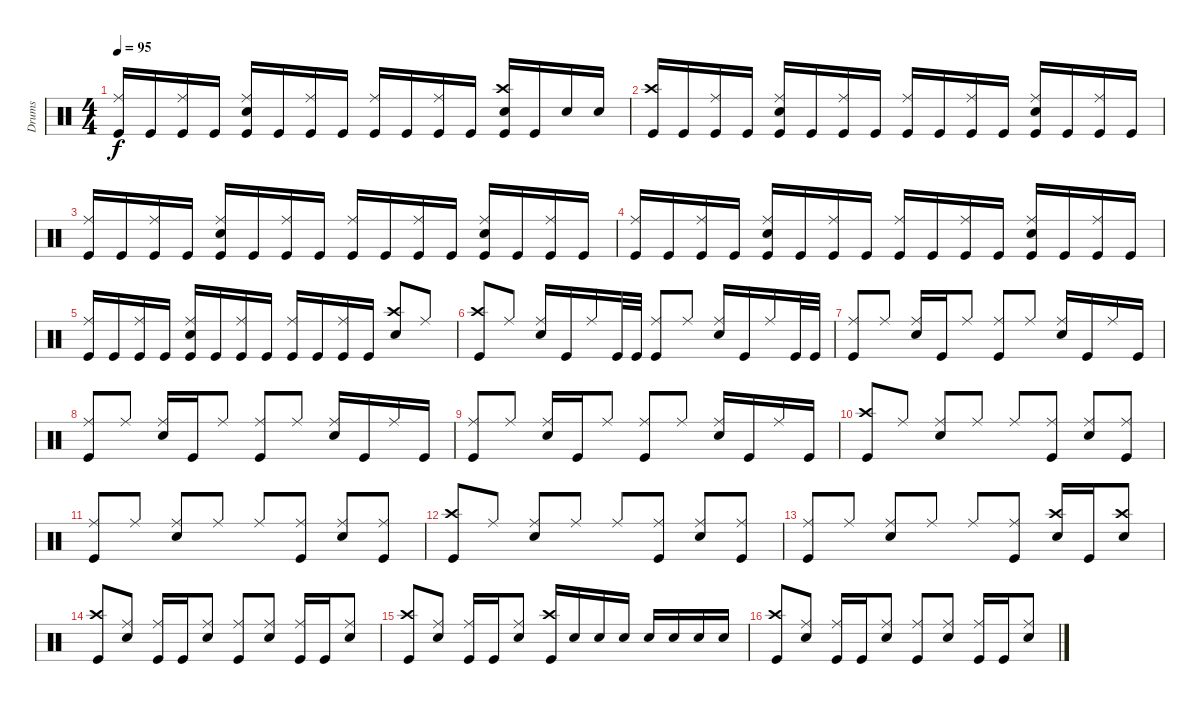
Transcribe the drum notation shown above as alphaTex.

\track ("Drums" "Drums") {instrument percussion}
\staff {score}
\articulation defaults
\ts (4 4)
\tempo 95
\clef neutral
\ks c
("Kick (hit)" "Ride (middle)").16{dy f beam Up} "Kick (hit)".16{beam Up} ("Kick (hit)" "Ride (middle)").16{beam Up} "Kick (hit)".16{beam Up} ("Kick (hit)" "Ride (middle)" "Snare (hit) 2").16{beam Up} "Kick (hit)".16{beam Up} ("Kick (hit)" "Ride (middle)").16{beam Up} "Kick (hit)".16{beam Up} ("Kick (hit)" "Ride (middle)").16{beam Up} "Kick (hit)".16{beam Up} ("Kick (hit)" "Ride (middle)").16{beam Up} "Kick (hit)".16{beam Up} ("Kick (hit)" "Crash high (hit)" "Snare (hit) 2").16{beam Up} "Kick (hit)".16{beam Up} "Snare (hit) 2".16{beam Up} "Snare (hit) 2".16{beam Up} |
("Kick (hit)" "Crash high (hit)").16{beam Up} "Kick (hit)".16{beam Up} ("Kick (hit)" "Ride (middle)").16{beam Up} "Kick (hit)".16{beam Up} ("Kick (hit)" "Ride (middle)" "Snare (hit) 2").16{beam Up} "Kick (hit)".16{beam Up} ("Kick (hit)" "Ride (middle)").16{beam Up} "Kick (hit)".16{beam Up} ("Kick (hit)" "Ride (middle)").16{beam Up} "Kick (hit)".16{beam Up} ("Kick (hit)" "Ride (middle)").16{beam Up} "Kick (hit)".16{beam Up} ("Kick (hit)" "Ride (middle)" "Snare (hit) 2").16{beam Up} "Kick (hit)".16{beam Up} ("Kick (hit)" "Ride (middle)").16{beam Up} "Kick (hit)".16{beam Up} |
("Kick (hit)" "Ride (middle)").16{beam Up} "Kick (hit)".16{beam Up} ("Kick (hit)" "Ride (middle)").16{beam Up} "Kick (hit)".16{beam Up} ("Kick (hit)" "Ride (middle)" "Snare (hit) 2").16{beam Up} "Kick (hit)".16{beam Up} ("Kick (hit)" "Ride (middle)").16{beam Up} "Kick (hit)".16{beam Up} ("Kick (hit)" "Ride (middle)").16{beam Up} "Kick (hit)".16{beam Up} ("Kick (hit)" "Ride (middle)").16{beam Up} "Kick (hit)".16{beam Up} ("Kick (hit)" "Ride (middle)" "Snare (hit) 2").16{beam Up} "Kick (hit)".16{beam Up} ("Kick (hit)" "Ride (middle)").16{beam Up} "Kick (hit)".16{beam Up} |
("Kick (hit)" "Ride (middle)").16{beam Up} "Kick (hit)".16{beam Up} ("Kick (hit)" "Ride (middle)").16{beam Up} "Kick (hit)".16{beam Up} ("Kick (hit)" "Ride (middle)" "Snare (hit) 2").16{beam Up} "Kick (hit)".16{beam Up} ("Kick (hit)" "Ride (middle)").16{beam Up} "Kick (hit)".16{beam Up} ("Kick (hit)" "Ride (middle)").16{beam Up} "Kick (hit)".16{beam Up} ("Kick (hit)" "Ride (middle)").16{beam Up} "Kick (hit)".16{beam Up} ("Kick (hit)" "Ride (middle)" "Snare (hit) 2").16{beam Up} "Kick (hit)".16{beam Up} ("Kick (hit)" "Ride (middle)").16{beam Up} "Kick (hit)".16{beam Up} |
("Kick (hit)" "Ride (middle)").16{beam Up} "Kick (hit)".16{beam Up} ("Kick (hit)" "Ride (middle)").16{beam Up} "Kick (hit)".16{beam Up} ("Kick (hit)" "Ride (middle)" "Snare (hit) 2").16{beam Up} "Kick (hit)".16{beam Up} ("Kick (hit)" "Ride (middle)").16{beam Up} "Kick (hit)".16{beam Up} ("Kick (hit)" "Ride (middle)").16{beam Up} "Kick (hit)".16{beam Up} ("Kick (hit)" "Ride (middle)").16{beam Up} "Kick (hit)".16{beam Up} ("Crash high (hit)" "Snare (hit) 2").8{beam Up} "Ride (middle)".8{beam Up} |
("Kick (hit)" "Crash high (hit)").8{beam Up} "Ride (middle)".8{beam Up} ("Snare (hit) 2" "Ride (middle)").16{beam Up} "Kick (hit)".16{beam Up} "Ride (middle)".16{beam Up} "Kick (hit)".32{beam Up} "Kick (hit)".32{beam Up} ("Kick (hit)" "Ride (middle)").8{beam Up} "Ride (middle)".8{beam Up} ("Snare (hit) 2" "Ride (middle)").16{beam Up} "Kick (hit)".16{beam Up} "Ride (middle)".16{beam Up} "Kick (hit)".32{beam Up} "Kick (hit)".32{beam Up} |
("Kick (hit)" "Ride (middle)").8{beam Up} "Ride (middle)".8{beam Up} ("Snare (hit) 2" "Ride (middle)").16{beam Up} "Kick (hit)".16{beam Up} "Ride (middle)".8{beam Up} ("Ride (middle)" "Kick (hit)").8{beam Up} "Ride (middle)".8{beam Up} ("Snare (hit) 2" "Ride (middle)").16{beam Up} "Kick (hit)".16{beam Up} "Ride (middle)".16{beam Up} "Kick (hit)".16{beam Up} |
("Kick (hit)" "Ride (middle)").8{beam Up} "Ride (middle)".8{beam Up} ("Snare (hit) 2" "Ride (middle)").16{beam Up} "Kick (hit)".16{beam Up} "Ride (middle)".8{beam Up} ("Kick (hit)" "Ride (middle)").8{beam Up} "Ride (middle)".8{beam Up} ("Ride (middle)" "Snare (hit) 2").16{beam Up} "Kick (hit)".16{beam Up} "Ride (middle)".16{beam Up} "Kick (hit)".16{beam Up} |
("Kick (hit)" "Ride (middle)").8{beam Up} "Ride (middle)".8{beam Up} ("Snare (hit) 2" "Ride (middle)").16{beam Up} "Kick (hit)".16{beam Up} "Ride (middle)".8{beam Up} ("Ride (middle)" "Kick (hit)").8{beam Up} "Ride (middle)".8{beam Up} ("Ride (middle)" "Snare (hit) 2").16{beam Up} "Kick (hit)".16{beam Up} "Ride (middle)".16{beam Up} "Kick (hit)".16{beam Up} |
("Crash high (hit)" "Kick (hit)").8{beam Up} "Ride (middle)".8{beam Up} ("Snare (hit) 2" "Ride (middle)").8{beam Up} "Ride (middle)".8{beam Up} "Ride (middle)".8{beam Up} ("Kick (hit)" "Ride (middle)").8{beam Up} ("Snare (hit) 2" "Ride (middle)").8{beam Up} ("Ride (middle)" "Kick (hit)").8{beam Up} |
("Kick (hit)" "Ride (middle)").8{beam Up} "Ride (middle)".8{beam Up} ("Snare (hit) 2" "Ride (middle)").8{beam Up} "Ride (middle)".8{beam Up} "Ride (middle)".8{beam Up} ("Ride (middle)" "Kick (hit)").8{beam Up} ("Ride (middle)" "Snare (hit) 2").8{beam Up} ("Ride (middle)" "Kick (hit)").8{beam Up} |
("Crash high (hit)" "Kick (hit)").8{beam Up} "Ride (middle)".8{beam Up} ("Snare (hit) 2" "Ride (middle)").8{beam Up} "Ride (middle)".8{beam Up} "Ride (middle)".8{beam Up} ("Kick (hit)" "Ride (middle)").8{beam Up} ("Snare (hit) 2" "Ride (middle)").8{beam Up} ("Ride (middle)" "Kick (hit)").8{beam Up} |
("Kick (hit)" "Ride (middle)").8{beam Up} "Ride (middle)".8{beam Up} ("Snare (hit) 2" "Ride (middle)").8{beam Up} "Ride (middle)".8{beam Up} "Ride (middle)".8{beam Up} ("Ride (middle)" "Kick (hit)").8{beam Up} ("Snare (hit) 2" "Crash high (hit)").16{beam Up} "Kick (hit)".16{beam Up} ("Snare (hit) 2" "Crash high (hit)").8{beam Up} |
("Kick (hit)" "Crash high (hit)").8{beam Up} ("Snare (hit) 2" "Ride (middle)").8{beam Up} ("Kick (hit)" "Ride (middle)").16{beam Up} "Kick (hit)".16{beam Up} ("Snare (hit) 2" "Ride (middle)").8{beam Up} ("Kick (hit)" "Ride (middle)").8{beam Up} ("Snare (hit) 2" "Ride (middle)").8{beam Up} ("Kick (hit)" "Ride (middle)").16{beam Up} "Kick (hit)".16{beam Up} ("Snare (hit) 2" "Ride (middle)").8{beam Up} |
("Kick (hit)" "Crash high (hit)").8{beam Up} ("Snare (hit) 2" "Ride (middle)").8{beam Up} ("Kick (hit)" "Ride (middle)").16{beam Up} "Kick (hit)".16{beam Up} ("Snare (hit) 2" "Ride (middle)").8{beam Up} ("Kick (hit)" "Crash high (hit)").16{beam Up} "Snare (hit) 2".16{beam Up} "Snare (hit) 2".16{beam Up} "Snare (hit) 2".16{beam Up} "Snare (hit) 2".16{beam Up} "Snare (hit) 2".16{beam Up} "Snare (hit) 2".16{beam Up} "Snare (hit) 2".16{beam Up} |
("Kick (hit)" "Crash high (hit)").8{beam Up} ("Snare (hit) 2" "Ride (middle)").8{beam Up} ("Kick (hit)" "Ride (middle)").16{beam Up} "Kick (hit)".16{beam Up} ("Snare (hit) 2" "Ride (middle)").8{beam Up} ("Kick (hit)" "Ride (middle)").8{beam Up} ("Snare (hit) 2" "Ride (middle)").8{beam Up} ("Kick (hit)" "Ride (middle)").16{beam Up} "Kick (hit)".16{beam Up} ("Snare (hit) 2" "Ride (middle)").8{beam Up}
